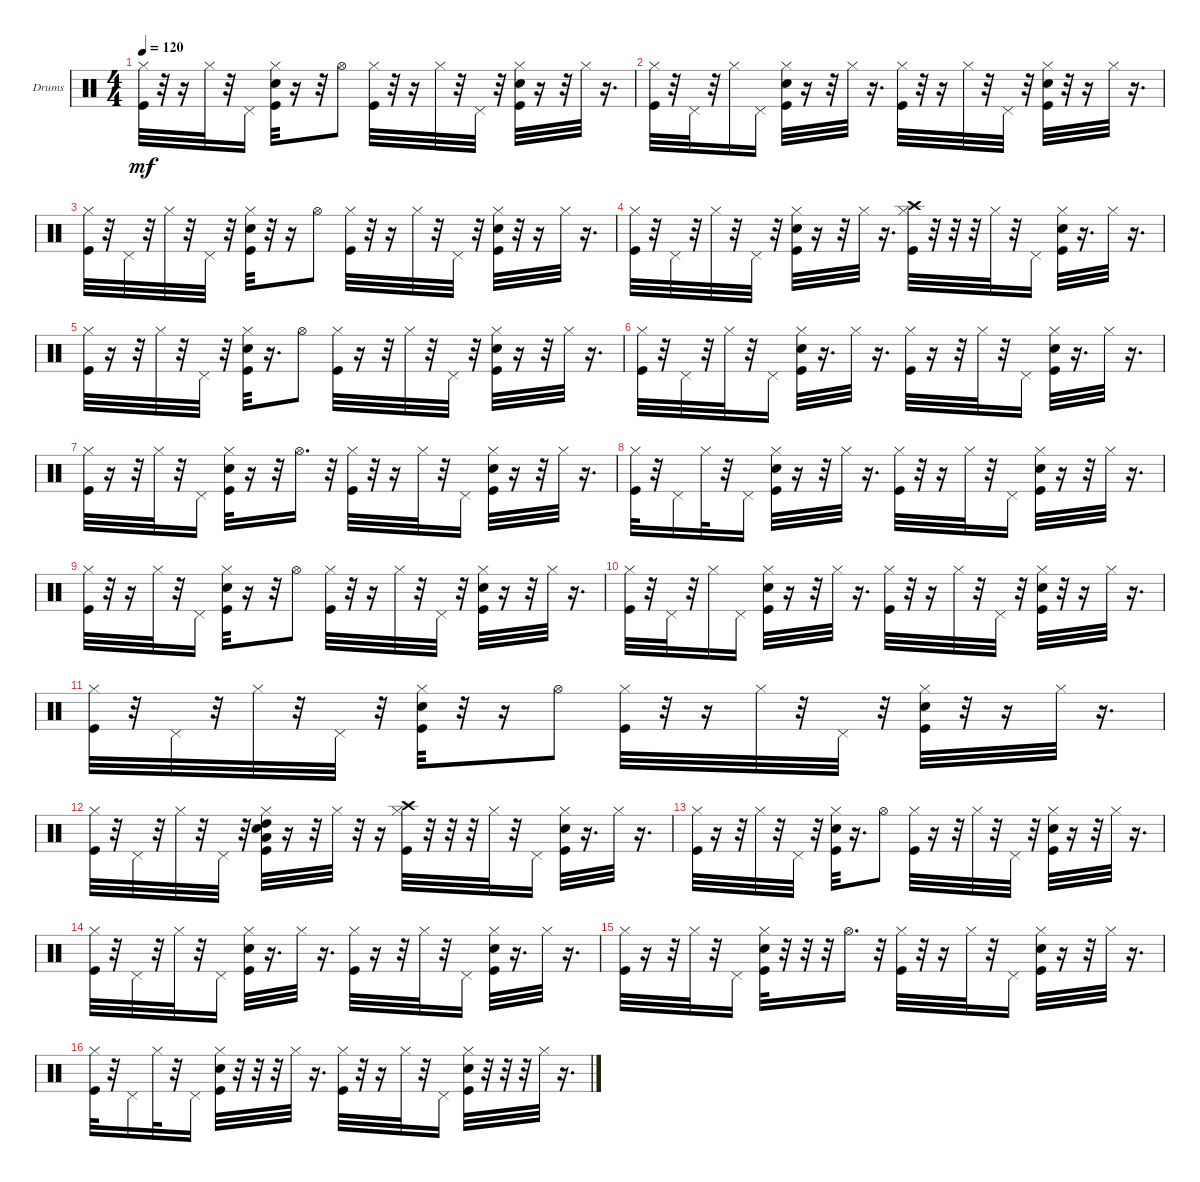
\bracketExtendMode groupsimilarinstruments
\firstSystemTrackNameOrientation horizontal
\otherSystemsTrackNameOrientation horizontal
\track ("Ударные" "Drums") {instrument percussion}
\staff {score}
\articulation defaults
\ts (4 4)
\tempo 120
\clef neutral
\ks c
("Kick (hit)" "Hi-Hat (closed)").32{dy mf} r.32 r.16 "Hi-Hat (closed)".32 r.32 "Pedal Hi-Hat (hit)".16 ("Snare (hit) 2" "Kick (hit)" "Hi-Hat (closed)").32 r.16 r.32 "Hi-Hat (open)".8 ("Kick (hit)" "Hi-Hat (closed)").32 r.32 r.16 "Hi-Hat (closed)".32 r.32 "Pedal Hi-Hat (hit)".32 r.32 ("Kick (hit)" "Snare (hit) 2" "Hi-Hat (closed)").32 r.16 r.32 "Hi-Hat (closed)".32 r.16{d} |
("Kick (hit)" "Hi-Hat (closed)").32 r.32 "Pedal Hi-Hat (hit)".32 r.32 "Hi-Hat (closed)".16 "Pedal Hi-Hat (hit)".16 ("Snare (hit) 2" "Kick (hit)" "Hi-Hat (closed)").32 r.16 r.32 "Hi-Hat (closed)".32 r.16{d} ("Kick (hit)" "Hi-Hat (closed)").32 r.32 r.16 "Hi-Hat (closed)".32 r.32 "Pedal Hi-Hat (hit)".32 r.32 ("Kick (hit)" "Snare (hit) 2" "Hi-Hat (closed)").32 r.32 r.16 "Hi-Hat (closed)".32 r.16{d} |
("Kick (hit)" "Hi-Hat (closed)").32 r.32 "Pedal Hi-Hat (hit)".32 r.32 "Hi-Hat (closed)".32 r.32 "Pedal Hi-Hat (hit)".32 r.32 ("Snare (hit) 2" "Kick (hit)" "Hi-Hat (closed)").32 r.32 r.16 "Hi-Hat (open)".8 ("Kick (hit)" "Hi-Hat (closed)").32 r.32 r.16 "Hi-Hat (closed)".32 r.32 "Pedal Hi-Hat (hit)".32 r.32 ("Snare (hit) 2" "Kick (hit)" "Hi-Hat (closed)").32 r.32 r.16 "Hi-Hat (closed)".32 r.16{d} |
("Kick (hit)" "Hi-Hat (closed)").32 r.32 "Pedal Hi-Hat (hit)".32 r.32 "Hi-Hat (closed)".32 r.32 "Pedal Hi-Hat (hit)".32 r.32 ("Snare (hit) 2" "Kick (hit)" "Hi-Hat (closed)").32 r.16 r.32 "Hi-Hat (closed)".32 r.16{d} ("Kick (hit)" "Hi-Hat (closed)" "Crash high (hit)").32 r.32 r.32 r.32 "Hi-Hat (closed)".32 r.32 "Pedal Hi-Hat (hit)".16 ("Kick (hit)" "Snare (hit) 2" "Hi-Hat (closed)").32 r.16{d} "Hi-Hat (closed)".32 r.16{d} |
("Kick (hit)" "Hi-Hat (closed)").32 r.16 r.32 "Hi-Hat (closed)".32 r.32 "Pedal Hi-Hat (hit)".32 r.32 ("Kick (hit)" "Snare (hit) 2" "Hi-Hat (closed)").32 r.16{d} "Hi-Hat (open)".8 ("Kick (hit)" "Hi-Hat (closed)").32 r.16 r.32 "Hi-Hat (closed)".32 r.32 "Pedal Hi-Hat (hit)".32 r.32 ("Snare (hit) 2" "Kick (hit)" "Hi-Hat (closed)").32 r.16 r.32 "Hi-Hat (closed)".32 r.16{d} |
("Kick (hit)" "Hi-Hat (closed)").32 r.32 "Pedal Hi-Hat (hit)".32 r.32 "Hi-Hat (closed)".32 r.32 "Pedal Hi-Hat (hit)".16 ("Kick (hit)" "Snare (hit) 2" "Hi-Hat (closed)").32 r.16{d} "Hi-Hat (closed)".32 r.16{d} ("Kick (hit)" "Hi-Hat (closed)").32 r.16 r.32 "Hi-Hat (closed)".32 r.32 "Pedal Hi-Hat (hit)".16 ("Snare (hit) 2" "Kick (hit)" "Hi-Hat (closed)").32 r.16{d} "Hi-Hat (closed)".32 r.16{d} |
("Kick (hit)" "Hi-Hat (closed)").32 r.16 r.32 "Hi-Hat (closed)".32 r.32 "Pedal Hi-Hat (hit)".16 ("Snare (hit) 2" "Kick (hit)" "Hi-Hat (closed)").32 r.16 r.32 "Hi-Hat (open)".16{d} r.32 ("Kick (hit)" "Hi-Hat (closed)").32 r.32 r.16 "Hi-Hat (closed)".32 r.32 "Pedal Hi-Hat (hit)".16 ("Kick (hit)" "Snare (hit) 2" "Hi-Hat (closed)").32 r.16 r.32 "Hi-Hat (closed)".32 r.16{d} |
("Kick (hit)" "Hi-Hat (closed)").32 r.32 "Pedal Hi-Hat (hit)".16 "Hi-Hat (closed)".32 r.32 "Pedal Hi-Hat (hit)".16 ("Snare (hit) 2" "Kick (hit)" "Hi-Hat (closed)").32 r.16 r.32 "Hi-Hat (closed)".32 r.16{d} ("Kick (hit)" "Hi-Hat (closed)").32 r.32 r.16 "Hi-Hat (closed)".32 r.32 "Pedal Hi-Hat (hit)".16 ("Snare (hit) 2" "Kick (hit)" "Hi-Hat (closed)").32 r.16 r.32 "Hi-Hat (closed)".32 r.16{d} |
("Kick (hit)" "Hi-Hat (closed)").32 r.32 r.16 "Hi-Hat (closed)".32 r.32 "Pedal Hi-Hat (hit)".16 ("Snare (hit) 2" "Kick (hit)" "Hi-Hat (closed)").32 r.16 r.32 "Hi-Hat (open)".8 ("Kick (hit)" "Hi-Hat (closed)").32 r.32 r.16 "Hi-Hat (closed)".32 r.32 "Pedal Hi-Hat (hit)".32 r.32 ("Kick (hit)" "Snare (hit) 2" "Hi-Hat (closed)").32 r.16 r.32 "Hi-Hat (closed)".32 r.16{d} |
("Kick (hit)" "Hi-Hat (closed)").32 r.32 "Pedal Hi-Hat (hit)".32 r.32 "Hi-Hat (closed)".16 "Pedal Hi-Hat (hit)".16 ("Snare (hit) 2" "Kick (hit)" "Hi-Hat (closed)").32 r.16 r.32 "Hi-Hat (closed)".32 r.16{d} ("Kick (hit)" "Hi-Hat (closed)").32 r.32 r.16 "Hi-Hat (closed)".32 r.32 "Pedal Hi-Hat (hit)".32 r.32 ("Kick (hit)" "Snare (hit) 2" "Hi-Hat (closed)").32 r.32 r.16 "Hi-Hat (closed)".32 r.16{d} |
("Kick (hit)" "Hi-Hat (closed)").32 r.32 "Pedal Hi-Hat (hit)".32 r.32 "Hi-Hat (closed)".32 r.32 "Pedal Hi-Hat (hit)".32 r.32 ("Snare (hit) 2" "Kick (hit)" "Hi-Hat (closed)").32 r.32 r.16 "Hi-Hat (open)".8 ("Kick (hit)" "Hi-Hat (closed)").32 r.32 r.16 "Hi-Hat (closed)".32 r.32 "Pedal Hi-Hat (hit)".32 r.32 ("Snare (hit) 2" "Kick (hit)" "Hi-Hat (closed)").32 r.32 r.16 "Hi-Hat (closed)".32 r.16{d} |
("Kick (hit)" "Hi-Hat (closed)").32 r.32 "Pedal Hi-Hat (hit)".32 r.32 "Hi-Hat (closed)".32 r.32 "Pedal Hi-Hat (hit)".32 r.32 ("Snare (hit) 2" "Kick (hit)" "Hi-Hat (closed)" "Low Tom (hit)" "High Tom (hit)").32 r.16 r.32 "Hi-Hat (closed)".32 r.32 r.16 ("Kick (hit)" "Hi-Hat (closed)" "Crash high (hit)").32 r.32 r.32 r.32 "Hi-Hat (closed)".32 r.32 "Pedal Hi-Hat (hit)".16 ("Kick (hit)" "Snare (hit) 2" "Hi-Hat (closed)").32 r.16{d} "Hi-Hat (closed)".32 r.16{d} |
("Kick (hit)" "Hi-Hat (closed)").32 r.16 r.32 "Hi-Hat (closed)".32 r.32 "Pedal Hi-Hat (hit)".32 r.32 ("Kick (hit)" "Snare (hit) 2" "Hi-Hat (closed)").32 r.16{d} "Hi-Hat (open)".8 ("Kick (hit)" "Hi-Hat (closed)").32 r.16 r.32 "Hi-Hat (closed)".32 r.32 "Pedal Hi-Hat (hit)".32 r.32 ("Snare (hit) 2" "Kick (hit)" "Hi-Hat (closed)").32 r.16 r.32 "Hi-Hat (closed)".32 r.16{d} |
("Kick (hit)" "Hi-Hat (closed)").32 r.32 "Pedal Hi-Hat (hit)".32 r.32 "Hi-Hat (closed)".32 r.32 "Pedal Hi-Hat (hit)".16 ("Kick (hit)" "Snare (hit) 2" "Hi-Hat (closed)").32 r.16{d} "Hi-Hat (closed)".32 r.16{d} ("Kick (hit)" "Hi-Hat (closed)").32 r.16 r.32 "Hi-Hat (closed)".32 r.32 "Pedal Hi-Hat (hit)".16 ("Snare (hit) 2" "Kick (hit)" "Hi-Hat (closed)").32 r.16{d} "Hi-Hat (closed)".32 r.16{d} |
("Kick (hit)" "Hi-Hat (closed)").32 r.16 r.32 "Hi-Hat (closed)".32 r.32 "Pedal Hi-Hat (hit)".16 ("Snare (hit) 2" "Kick (hit)" "Hi-Hat (closed)").32 r.32 r.32 r.32 "Hi-Hat (open)".16{d} r.32 ("Kick (hit)" "Hi-Hat (closed)").32 r.32 r.16 "Hi-Hat (closed)".32 r.32 "Pedal Hi-Hat (hit)".16 ("Kick (hit)" "Snare (hit) 2" "Hi-Hat (closed)").32 r.16 r.32 "Hi-Hat (closed)".32 r.16{d} |
("Kick (hit)" "Hi-Hat (closed)").32 r.32 "Pedal Hi-Hat (hit)".16 "Hi-Hat (closed)".32 r.32 "Pedal Hi-Hat (hit)".16 ("Snare (hit) 2" "Kick (hit)" "Hi-Hat (closed)").32 r.32 r.32 r.32 "Hi-Hat (closed)".32 r.16{d} ("Kick (hit)" "Hi-Hat (closed)").32 r.32 r.16 "Hi-Hat (closed)".32 r.32 "Pedal Hi-Hat (hit)".16 ("Snare (hit) 2" "Kick (hit)" "Hi-Hat (closed)").32 r.32 r.32 r.32 "Hi-Hat (closed)".32 r.16{d}
